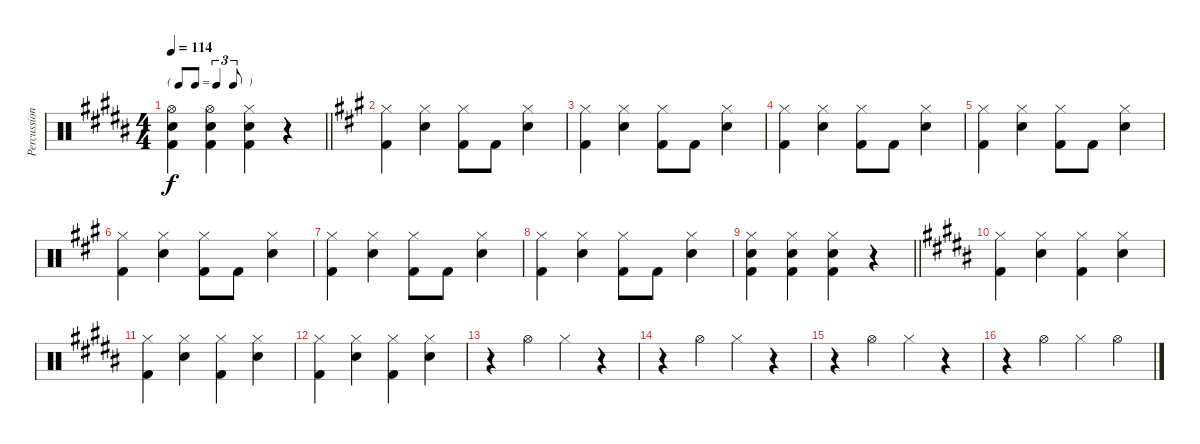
\track ("Percussion" "Percussion") {instrument percussion}
\staff {score}
\articulation defaults
\ts (4 4)
\tf triplet8th
\tempo 114
\clef neutral
\barLineRight lightlight
\ks b
("Hi-Hat (open)" "Kick (hit) 2" "Snare (hit) 2").4{dy f} ("Hi-Hat (open)" "Kick (hit) 2" "Snare (hit) 2").4 ("Hi-Hat (closed)" "Kick (hit) 2" "Snare (hit) 2").4 r.4 |
\ks a
("Hi-Hat (closed)" "Kick (hit) 2").4 ("Hi-Hat (closed)" "Snare (hit) 2").4 ("Hi-Hat (closed)" "Kick (hit) 2").8 "Kick (hit) 2".8 ("Hi-Hat (closed)" "Snare (hit) 2").4 |
("Hi-Hat (closed)" "Kick (hit) 2").4 ("Hi-Hat (closed)" "Snare (hit) 2").4 ("Hi-Hat (closed)" "Kick (hit) 2").8 "Kick (hit) 2".8 ("Hi-Hat (closed)" "Snare (hit) 2").4 |
("Hi-Hat (closed)" "Kick (hit) 2").4 ("Hi-Hat (closed)" "Snare (hit) 2").4 ("Hi-Hat (closed)" "Kick (hit) 2").8 "Kick (hit) 2".8 ("Hi-Hat (closed)" "Snare (hit) 2").4 |
("Hi-Hat (closed)" "Kick (hit) 2").4 ("Hi-Hat (closed)" "Snare (hit) 2").4 ("Hi-Hat (closed)" "Kick (hit) 2").8 "Kick (hit) 2".8 ("Hi-Hat (closed)" "Snare (hit) 2").4 |
("Hi-Hat (closed)" "Kick (hit) 2").4 ("Hi-Hat (closed)" "Snare (hit) 2").4 ("Hi-Hat (closed)" "Kick (hit) 2").8 "Kick (hit) 2".8 ("Hi-Hat (closed)" "Snare (hit) 2").4 |
("Hi-Hat (closed)" "Kick (hit) 2").4 ("Hi-Hat (closed)" "Snare (hit) 2").4 ("Hi-Hat (closed)" "Kick (hit) 2").8 "Kick (hit) 2".8 ("Hi-Hat (closed)" "Snare (hit) 2").4 |
("Hi-Hat (closed)" "Kick (hit) 2").4 ("Hi-Hat (closed)" "Snare (hit) 2").4 ("Hi-Hat (closed)" "Kick (hit) 2").8 "Kick (hit) 2".8 ("Hi-Hat (closed)" "Snare (hit) 2").4 |
\barLineRight lightlight
("Hi-Hat (closed)" "Kick (hit) 2" "Snare (hit) 2").4 ("Hi-Hat (closed)" "Kick (hit) 2" "Snare (hit) 2").4 ("Hi-Hat (closed)" "Kick (hit) 2" "Snare (hit) 2").4 r.4 |
\ks b
("Hi-Hat (closed)" "Kick (hit) 2").4 ("Hi-Hat (closed)" "Snare (hit) 2").4 ("Hi-Hat (closed)" "Kick (hit) 2").4 ("Hi-Hat (closed)" "Snare (hit) 2").4 |
("Hi-Hat (closed)" "Kick (hit) 2").4 ("Hi-Hat (closed)" "Snare (hit) 2").4 ("Hi-Hat (closed)" "Kick (hit) 2").4 ("Hi-Hat (closed)" "Snare (hit) 2").4 |
("Hi-Hat (closed)" "Kick (hit) 2").4 ("Hi-Hat (closed)" "Snare (hit) 2").4 ("Hi-Hat (closed)" "Kick (hit) 2").4 ("Hi-Hat (closed)" "Snare (hit) 2").4 |
r.4 "Hi-Hat (open)".4 "Hi-Hat (closed)".4 r.4 |
r.4 "Hi-Hat (open)".4 "Hi-Hat (closed)".4 r.4 |
r.4 "Hi-Hat (open)".4 "Hi-Hat (closed)".4 r.4 |
r.4 "Hi-Hat (open)".4 "Hi-Hat (closed)".4 "Hi-Hat (open)".4
